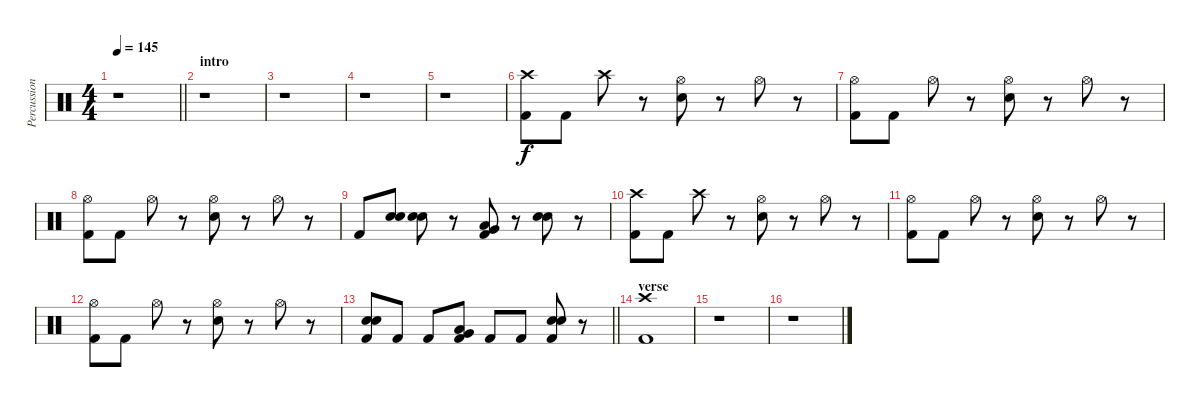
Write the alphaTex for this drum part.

\track ("Percussion" "Percussion") {instrument percussion}
\staff {score}
\articulation defaults
\ts (4 4)
\tempo 145
\clef neutral
\barLineRight lightlight
\ks c
r.1{dy f} |
\section ("" "intro")
r.1 |
r.1 |
r.1 |
r.1 |
("Crash high (hit)" "Kick (hit) 2").8 "Kick (hit) 2".8 "Crash high (hit)".8 r.8 ("Hi-Hat (open)" "Electric Snare (hit)").8 r.8 "Hi-Hat (open)".8 r.8 |
("Hi-Hat (open)" "Kick (hit) 2").8 "Kick (hit) 2".8 "Hi-Hat (open)".8 r.8 ("Hi-Hat (open)" "Electric Snare (hit)").8 r.8 "Hi-Hat (open)".8 r.8 |
("Hi-Hat (open)" "Kick (hit) 2").8 "Kick (hit) 2".8 "Hi-Hat (open)".8 r.8 ("Hi-Hat (open)" "Electric Snare (hit)").8 r.8 "Hi-Hat (open)".8 r.8 |
"Kick (hit) 2".8 ("Electric Snare (hit)" "Electric Snare (hit)").8 ("Electric Snare (hit)" "Electric Snare (hit)").8 r.8 ("Low Tom (hit)" "Very Low Tom (hit)" "Kick (hit) 2").8 r.8 ("Electric Snare (hit)" "Electric Snare (hit)").8 r.8 |
("Crash high (hit)" "Kick (hit) 2").8 "Kick (hit) 2".8 "Crash high (hit)".8 r.8 ("Hi-Hat (open)" "Electric Snare (hit)").8 r.8 "Hi-Hat (open)".8 r.8 |
("Hi-Hat (open)" "Kick (hit) 2").8 "Kick (hit) 2".8 "Hi-Hat (open)".8 r.8 ("Hi-Hat (open)" "Electric Snare (hit)").8 r.8 "Hi-Hat (open)".8 r.8 |
("Hi-Hat (open)" "Kick (hit) 2").8 "Kick (hit) 2".8 "Hi-Hat (open)".8 r.8 ("Hi-Hat (open)" "Electric Snare (hit)").8 r.8 "Hi-Hat (open)".8 r.8 |
\barLineRight lightlight
("Electric Snare (hit)" "Electric Snare (hit)" "Kick (hit) 2").8 "Kick (hit) 2".8 "Kick (hit) 2".8 ("Low Tom (hit)" "Very Low Tom (hit)" "Kick (hit) 2").8 "Kick (hit) 2".8 "Kick (hit) 2".8 ("Electric Snare (hit)" "Electric Snare (hit)" "Kick (hit) 2").8 r.8 |
\section ("" "verse")
("Crash high (hit)" "Kick (hit) 2").1 |
r.1 |
r.1
